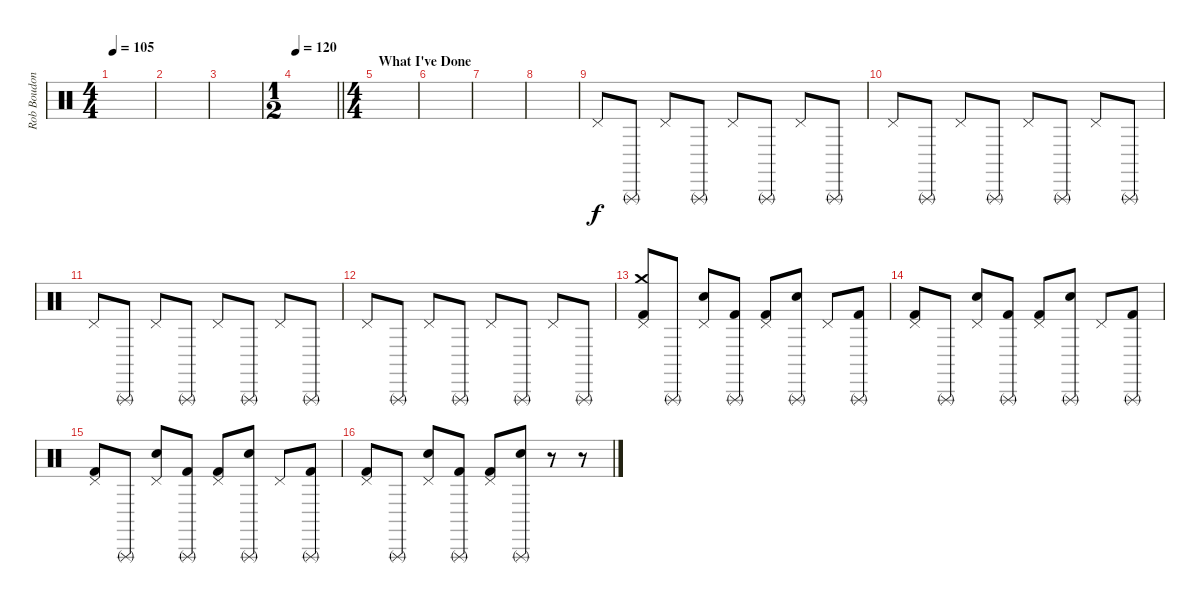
\track ("Rob Boudon [Drums]" "Rob Boudon") {instrument percussion}
\staff {score}
\articulation defaults
\ts (4 4)
\tempo 105
\clef neutral
\ks c
|
|
|
\ts (1 2)
\tempo 120
\barLineRight lightlight
|
\ts (4 4)
\section ("" "What I've Done")
|
|
|
|
"Pedal Hi-Hat (hit)".8 "Triangle (rnute)".8 "Pedal Hi-Hat (hit)".8 "Triangle (rnute)".8 "Pedal Hi-Hat (hit)".8 "Triangle (rnute)".8 "Pedal Hi-Hat (hit)".8 "Triangle (rnute)".8 |
"Pedal Hi-Hat (hit)".8 "Triangle (rnute)".8 "Pedal Hi-Hat (hit)".8 "Triangle (rnute)".8 "Pedal Hi-Hat (hit)".8 "Triangle (rnute)".8 "Pedal Hi-Hat (hit)".8 "Triangle (rnute)".8 |
"Pedal Hi-Hat (hit)".8 "Triangle (rnute)".8 "Pedal Hi-Hat (hit)".8 "Triangle (rnute)".8 "Pedal Hi-Hat (hit)".8 "Triangle (rnute)".8 "Pedal Hi-Hat (hit)".8 "Triangle (rnute)".8 |
"Pedal Hi-Hat (hit)".8 "Triangle (rnute)".8 "Pedal Hi-Hat (hit)".8 "Triangle (rnute)".8 "Pedal Hi-Hat (hit)".8 "Triangle (rnute)".8 "Pedal Hi-Hat (hit)".8 "Triangle (rnute)".8 |
("Crash medium (hit)" "Pedal Hi-Hat (hit)" "Kick (hit) 2").8 "Triangle (rnute)".8 ("Pedal Hi-Hat (hit)" "Snare (hit) 2").8 ("Triangle (rnute)" "Kick (hit) 2").8 ("Pedal Hi-Hat (hit)" "Kick (hit) 2").8 ("Triangle (rnute)" "Snare (hit) 2").8 "Pedal Hi-Hat (hit)".8 ("Triangle (rnute)" "Kick (hit) 2").8 |
("Pedal Hi-Hat (hit)" "Kick (hit) 2").8 "Triangle (rnute)".8 ("Pedal Hi-Hat (hit)" "Snare (hit) 2").8 ("Triangle (rnute)" "Kick (hit) 2").8 ("Pedal Hi-Hat (hit)" "Kick (hit) 2").8 ("Triangle (rnute)" "Snare (hit) 2").8 "Pedal Hi-Hat (hit)".8 ("Triangle (rnute)" "Kick (hit) 2").8 |
("Pedal Hi-Hat (hit)" "Kick (hit) 2").8 "Triangle (rnute)".8 ("Pedal Hi-Hat (hit)" "Snare (hit) 2").8 ("Triangle (rnute)" "Kick (hit) 2").8 ("Pedal Hi-Hat (hit)" "Kick (hit) 2").8 ("Triangle (rnute)" "Snare (hit) 2").8 "Pedal Hi-Hat (hit)".8 ("Triangle (rnute)" "Kick (hit) 2").8 |
("Pedal Hi-Hat (hit)" "Kick (hit) 2").8 "Triangle (rnute)".8 ("Pedal Hi-Hat (hit)" "Snare (hit) 2").8 ("Triangle (rnute)" "Kick (hit) 2").8 ("Pedal Hi-Hat (hit)" "Kick (hit) 2").8 ("Triangle (rnute)" "Snare (hit) 2").8 r.8 r.8
